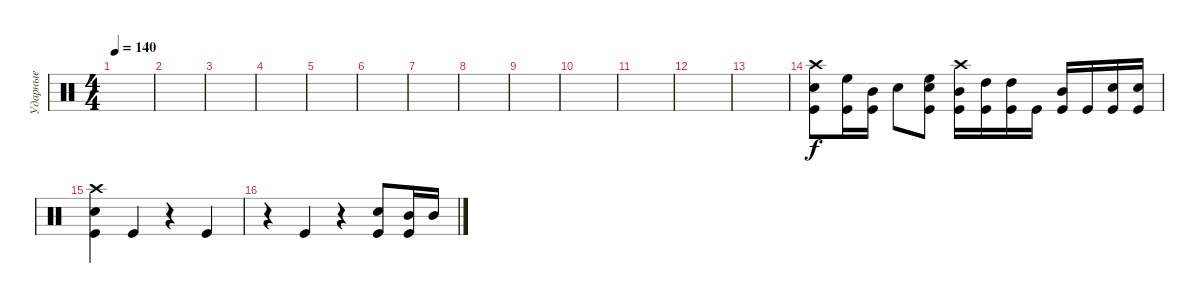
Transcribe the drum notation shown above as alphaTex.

\track ("Ударные" "Ударные") {instrument percussion}
\staff {score}
\articulation defaults
\ts (4 4)
\tempo 140
\clef neutral
\ks c
|
|
|
|
|
|
|
|
|
|
|
|
|
("Crash high (hit)" "Electric Snare (hit)" "Kick (hit)").8 ("High Floor Tom (hit)" "Kick (hit)").16 ("Mid Tom (hit)" "Kick (hit)").16 "Electric Snare (hit)".8 ("Electric Snare (hit)" "High Floor Tom (hit)" "Kick (hit)").8 ("Crash high (hit)" "Mid Tom (hit)" "Kick (hit)").16 ("High Tom (hit)" "Kick (hit)").16 ("High Tom (hit)" "Kick (hit)").16 "Kick (hit)".16 ("Mid Tom (hit)" "Kick (hit)").16 "Kick (hit)".16 ("Electric Snare (hit)" "Kick (hit)").16 ("Electric Snare (hit)" "Kick (hit)").16 |
("Crash high (hit)" "Electric Snare (hit)" "Kick (hit)").4 "Kick (hit)".4 r.4 "Kick (hit)".4 |
r.4 "Kick (hit)".4 r.4 ("Electric Snare (hit)" "Kick (hit)").8 ("Mid Tom (hit)" "Kick (hit)").16 "Mid Tom (hit)".16
